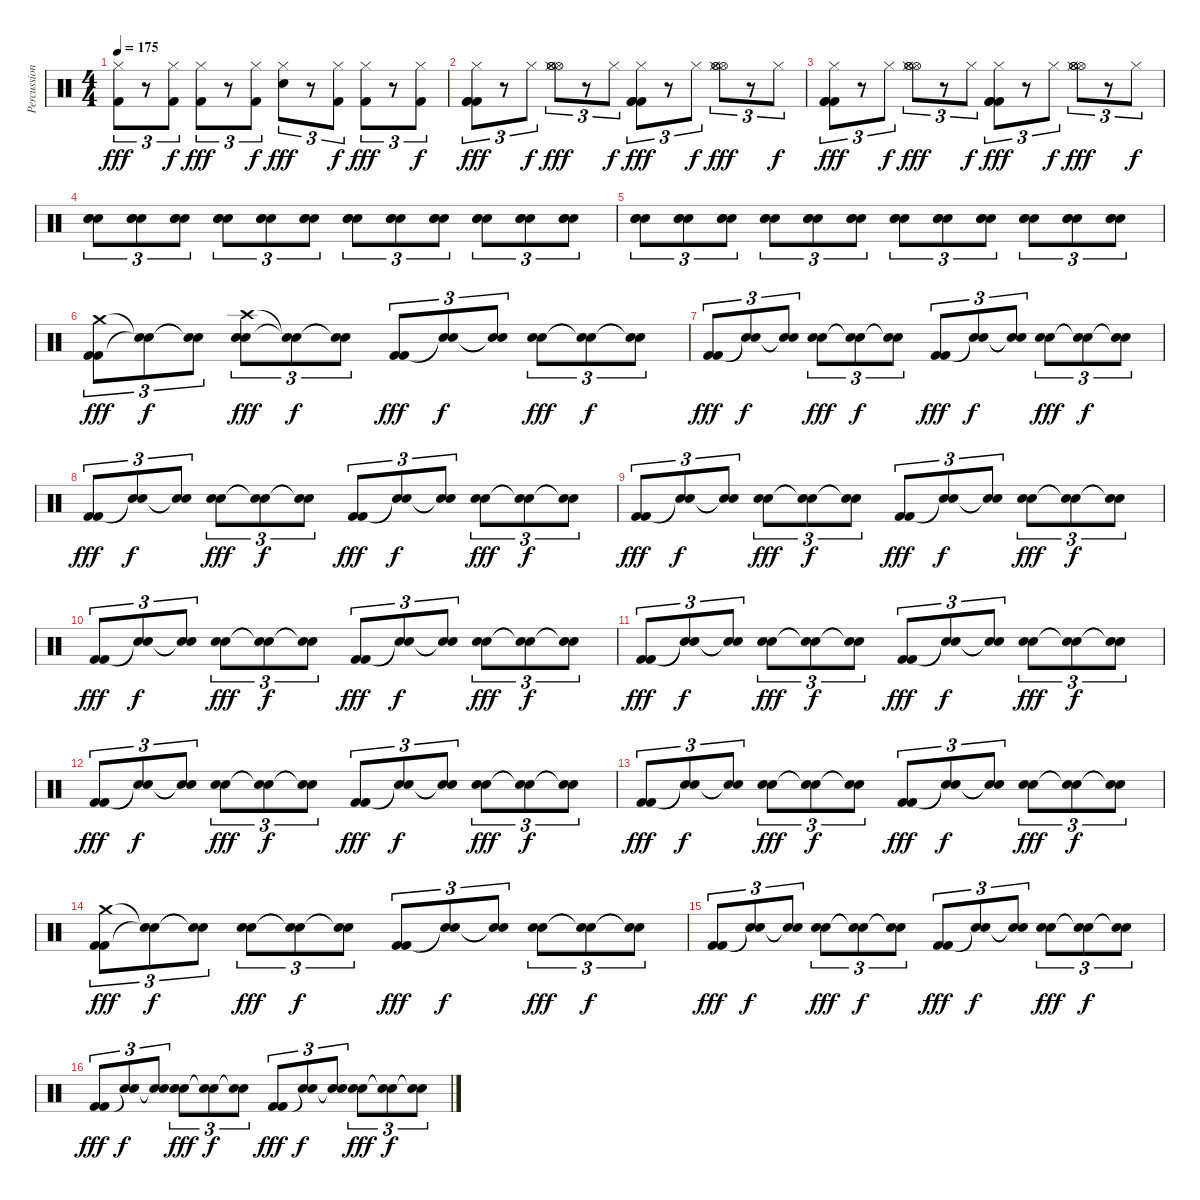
\track ("Percussion" "Percussion") {instrument percussion}
\staff {score}
\articulation defaults
\ts (4 4)
\tempo 175
\clef neutral
\ks c
("Kick (hit) 2" "Hi-Hat (closed)").8{tu (3 2) dy fff} r.8{tu (3 2)} ("Kick (hit) 2" "Hi-Hat (closed)").8{tu (3 2) dy f} ("Kick (hit) 2" "Hi-Hat (closed)").8{tu (3 2) dy fff} r.8{tu (3 2)} ("Kick (hit) 2" "Hi-Hat (closed)").8{tu (3 2) dy f} ("Electric Snare (hit)" "Hi-Hat (closed)").8{tu (3 2) dy fff} r.8{tu (3 2)} ("Kick (hit) 2" "Hi-Hat (closed)").8{tu (3 2) dy f} ("Kick (hit) 2" "Hi-Hat (closed)").8{tu (3 2) dy fff} r.8{tu (3 2)} ("Kick (hit) 2" "Hi-Hat (closed)").8{tu (3 2) dy f} |
("Kick (hit) 2" "Kick (hit) 2" "Kick (hit) 2" "Hi-Hat (closed)").8{tu (3 2) dy fff} r.8{tu (3 2)} "Hi-Hat (closed)".8{tu (3 2) dy f} ("Hi-Hat (open)" "Hi-Hat (open)" "Hi-Hat (open)" "Hi-Hat (closed)").8{tu (3 2) dy fff} r.8{tu (3 2)} "Hi-Hat (closed)".8{tu (3 2) dy f} ("Kick (hit) 2" "Kick (hit) 2" "Kick (hit) 2" "Hi-Hat (closed)").8{tu (3 2) dy fff} r.8{tu (3 2)} "Hi-Hat (closed)".8{tu (3 2) dy f} ("Hi-Hat (open)" "Hi-Hat (open)" "Hi-Hat (open)" "Hi-Hat (closed)").8{tu (3 2) dy fff} r.8{tu (3 2)} "Hi-Hat (closed)".8{tu (3 2) dy f} |
("Kick (hit) 2" "Kick (hit) 2" "Kick (hit) 2" "Hi-Hat (closed)").8{tu (3 2) dy fff} r.8{tu (3 2)} "Hi-Hat (closed)".8{tu (3 2) dy f} ("Hi-Hat (open)" "Hi-Hat (open)" "Hi-Hat (open)" "Hi-Hat (closed)").8{tu (3 2) dy fff} r.8{tu (3 2)} "Hi-Hat (closed)".8{tu (3 2) dy f} ("Kick (hit) 2" "Kick (hit) 2" "Kick (hit) 2" "Hi-Hat (closed)").8{tu (3 2) dy fff} r.8{tu (3 2)} "Hi-Hat (closed)".8{tu (3 2) dy f} ("Hi-Hat (open)" "Hi-Hat (open)" "Hi-Hat (open)" "Hi-Hat (closed)").8{tu (3 2) dy fff} r.8{tu (3 2)} "Hi-Hat (closed)".8{tu (3 2) dy f} |
("Electric Snare (hit)" "Electric Snare (hit)" "Electric Snare (hit)").8{tu (3 2)} ("Electric Snare (hit)" "Electric Snare (hit)" "Electric Snare (hit)").8{tu (3 2)} ("Electric Snare (hit)" "Electric Snare (hit)" "Electric Snare (hit)").8{tu (3 2)} ("Electric Snare (hit)" "Electric Snare (hit)" "Electric Snare (hit)").8{tu (3 2)} ("Electric Snare (hit)" "Electric Snare (hit)" "Electric Snare (hit)").8{tu (3 2)} ("Electric Snare (hit)" "Electric Snare (hit)" "Electric Snare (hit)").8{tu (3 2)} ("Electric Snare (hit)" "Electric Snare (hit)" "Electric Snare (hit)").8{tu (3 2)} ("Electric Snare (hit)" "Electric Snare (hit)" "Electric Snare (hit)").8{tu (3 2)} ("Electric Snare (hit)" "Electric Snare (hit)" "Electric Snare (hit)").8{tu (3 2)} ("Electric Snare (hit)" "Electric Snare (hit)" "Electric Snare (hit)").8{tu (3 2)} ("Electric Snare (hit)" "Electric Snare (hit)" "Electric Snare (hit)").8{tu (3 2)} ("Electric Snare (hit)" "Electric Snare (hit)" "Electric Snare (hit)").8{tu (3 2)} |
("Electric Snare (hit)" "Electric Snare (hit)" "Electric Snare (hit)").8{tu (3 2)} ("Electric Snare (hit)" "Electric Snare (hit)" "Electric Snare (hit)").8{tu (3 2)} ("Electric Snare (hit)" "Electric Snare (hit)" "Electric Snare (hit)").8{tu (3 2)} ("Electric Snare (hit)" "Electric Snare (hit)" "Electric Snare (hit)").8{tu (3 2)} ("Electric Snare (hit)" "Electric Snare (hit)" "Electric Snare (hit)").8{tu (3 2)} ("Electric Snare (hit)" "Electric Snare (hit)" "Electric Snare (hit)").8{tu (3 2)} ("Electric Snare (hit)" "Electric Snare (hit)" "Electric Snare (hit)").8{tu (3 2)} ("Electric Snare (hit)" "Electric Snare (hit)" "Electric Snare (hit)").8{tu (3 2)} ("Electric Snare (hit)" "Electric Snare (hit)" "Electric Snare (hit)").8{tu (3 2)} ("Electric Snare (hit)" "Electric Snare (hit)" "Electric Snare (hit)").8{tu (3 2)} ("Electric Snare (hit)" "Electric Snare (hit)" "Electric Snare (hit)").8{tu (3 2)} ("Electric Snare (hit)" "Electric Snare (hit)" "Electric Snare (hit)").8{tu (3 2)} |
("Kick (hit) 2" "Crash medium (hit)" "Kick (hit) 2").8{tu (3 2) dy fff} ("Snare (hit)"{t} "Snare (hit)"{t}).8{tu (3 2) dy f} ("Snare (hit)"{t} "Snare (hit)"{t}).8{tu (3 2)} ("Electric Snare (hit)" "Crash high (hit)" "Electric Snare (hit)").8{tu (3 2) dy fff} ("Snare (hit)"{t} "Snare (hit)"{t}).8{tu (3 2) dy f} ("Snare (hit)"{t} "Snare (hit)"{t}).8{tu (3 2)} ("Kick (hit) 2" "Kick (hit) 2").8{tu (3 2) dy fff} ("Snare (hit)"{t} "Snare (hit)"{t}).8{tu (3 2) dy f} ("Snare (hit)"{t} "Snare (hit)"{t}).8{tu (3 2)} ("Electric Snare (hit)" "Electric Snare (hit)").8{tu (3 2) dy fff} ("Snare (hit)"{t} "Snare (hit)"{t}).8{tu (3 2) dy f} ("Snare (hit)"{t} "Snare (hit)"{t}).8{tu (3 2)} |
("Kick (hit) 2" "Kick (hit) 2").8{tu (3 2) dy fff} ("Snare (hit)"{t} "Snare (hit)"{t}).8{tu (3 2) dy f} ("Snare (hit)"{t} "Snare (hit)"{t}).8{tu (3 2)} ("Electric Snare (hit)" "Electric Snare (hit)").8{tu (3 2) dy fff} ("Snare (hit)"{t} "Snare (hit)"{t}).8{tu (3 2) dy f} ("Snare (hit)"{t} "Snare (hit)"{t}).8{tu (3 2)} ("Kick (hit) 2" "Kick (hit) 2").8{tu (3 2) dy fff} ("Snare (hit)"{t} "Snare (hit)"{t}).8{tu (3 2) dy f} ("Snare (hit)"{t} "Snare (hit)"{t}).8{tu (3 2)} ("Electric Snare (hit)" "Electric Snare (hit)").8{tu (3 2) dy fff} ("Snare (hit)"{t} "Snare (hit)"{t}).8{tu (3 2) dy f} ("Snare (hit)"{t} "Snare (hit)"{t}).8{tu (3 2)} |
("Kick (hit) 2" "Kick (hit) 2").8{tu (3 2) dy fff} ("Snare (hit)"{t} "Snare (hit)"{t}).8{tu (3 2) dy f} ("Snare (hit)"{t} "Snare (hit)"{t}).8{tu (3 2)} ("Electric Snare (hit)" "Electric Snare (hit)").8{tu (3 2) dy fff} ("Snare (hit)"{t} "Snare (hit)"{t}).8{tu (3 2) dy f} ("Snare (hit)"{t} "Snare (hit)"{t}).8{tu (3 2)} ("Kick (hit) 2" "Kick (hit) 2").8{tu (3 2) dy fff} ("Snare (hit)"{t} "Snare (hit)"{t}).8{tu (3 2) dy f} ("Snare (hit)"{t} "Snare (hit)"{t}).8{tu (3 2)} ("Electric Snare (hit)" "Electric Snare (hit)").8{tu (3 2) dy fff} ("Snare (hit)"{t} "Snare (hit)"{t}).8{tu (3 2) dy f} ("Snare (hit)"{t} "Snare (hit)"{t}).8{tu (3 2)} |
("Kick (hit) 2" "Kick (hit) 2").8{tu (3 2) dy fff} ("Snare (hit)"{t} "Snare (hit)"{t}).8{tu (3 2) dy f} ("Snare (hit)"{t} "Snare (hit)"{t}).8{tu (3 2)} ("Electric Snare (hit)" "Electric Snare (hit)").8{tu (3 2) dy fff} ("Snare (hit)"{t} "Snare (hit)"{t}).8{tu (3 2) dy f} ("Snare (hit)"{t} "Snare (hit)"{t}).8{tu (3 2)} ("Kick (hit) 2" "Kick (hit) 2").8{tu (3 2) dy fff} ("Snare (hit)"{t} "Snare (hit)"{t}).8{tu (3 2) dy f} ("Snare (hit)"{t} "Snare (hit)"{t}).8{tu (3 2)} ("Electric Snare (hit)" "Electric Snare (hit)").8{tu (3 2) dy fff} ("Snare (hit)"{t} "Snare (hit)"{t}).8{tu (3 2) dy f} ("Snare (hit)"{t} "Snare (hit)"{t}).8{tu (3 2)} |
("Kick (hit) 2" "Kick (hit) 2").8{tu (3 2) dy fff} ("Snare (hit)"{t} "Snare (hit)"{t}).8{tu (3 2) dy f} ("Snare (hit)"{t} "Snare (hit)"{t}).8{tu (3 2)} ("Electric Snare (hit)" "Electric Snare (hit)").8{tu (3 2) dy fff} ("Snare (hit)"{t} "Snare (hit)"{t}).8{tu (3 2) dy f} ("Snare (hit)"{t} "Snare (hit)"{t}).8{tu (3 2)} ("Kick (hit) 2" "Kick (hit) 2").8{tu (3 2) dy fff} ("Snare (hit)"{t} "Snare (hit)"{t}).8{tu (3 2) dy f} ("Snare (hit)"{t} "Snare (hit)"{t}).8{tu (3 2)} ("Electric Snare (hit)" "Electric Snare (hit)").8{tu (3 2) dy fff} ("Snare (hit)"{t} "Snare (hit)"{t}).8{tu (3 2) dy f} ("Snare (hit)"{t} "Snare (hit)"{t}).8{tu (3 2)} |
("Kick (hit) 2" "Kick (hit) 2").8{tu (3 2) dy fff} ("Snare (hit)"{t} "Snare (hit)"{t}).8{tu (3 2) dy f} ("Snare (hit)"{t} "Snare (hit)"{t}).8{tu (3 2)} ("Electric Snare (hit)" "Electric Snare (hit)").8{tu (3 2) dy fff} ("Snare (hit)"{t} "Snare (hit)"{t}).8{tu (3 2) dy f} ("Snare (hit)"{t} "Snare (hit)"{t}).8{tu (3 2)} ("Kick (hit) 2" "Kick (hit) 2").8{tu (3 2) dy fff} ("Snare (hit)"{t} "Snare (hit)"{t}).8{tu (3 2) dy f} ("Snare (hit)"{t} "Snare (hit)"{t}).8{tu (3 2)} ("Electric Snare (hit)" "Electric Snare (hit)").8{tu (3 2) dy fff} ("Snare (hit)"{t} "Snare (hit)"{t}).8{tu (3 2) dy f} ("Snare (hit)"{t} "Snare (hit)"{t}).8{tu (3 2)} |
("Kick (hit) 2" "Kick (hit) 2").8{tu (3 2) dy fff} ("Snare (hit)"{t} "Snare (hit)"{t}).8{tu (3 2) dy f} ("Snare (hit)"{t} "Snare (hit)"{t}).8{tu (3 2)} ("Electric Snare (hit)" "Electric Snare (hit)").8{tu (3 2) dy fff} ("Snare (hit)"{t} "Snare (hit)"{t}).8{tu (3 2) dy f} ("Snare (hit)"{t} "Snare (hit)"{t}).8{tu (3 2)} ("Kick (hit) 2" "Kick (hit) 2").8{tu (3 2) dy fff} ("Snare (hit)"{t} "Snare (hit)"{t}).8{tu (3 2) dy f} ("Snare (hit)"{t} "Snare (hit)"{t}).8{tu (3 2)} ("Electric Snare (hit)" "Electric Snare (hit)").8{tu (3 2) dy fff} ("Snare (hit)"{t} "Snare (hit)"{t}).8{tu (3 2) dy f} ("Snare (hit)"{t} "Snare (hit)"{t}).8{tu (3 2)} |
("Kick (hit) 2" "Kick (hit) 2").8{tu (3 2) dy fff} ("Snare (hit)"{t} "Snare (hit)"{t}).8{tu (3 2) dy f} ("Snare (hit)"{t} "Snare (hit)"{t}).8{tu (3 2)} ("Electric Snare (hit)" "Electric Snare (hit)").8{tu (3 2) dy fff} ("Snare (hit)"{t} "Snare (hit)"{t}).8{tu (3 2) dy f} ("Snare (hit)"{t} "Snare (hit)"{t}).8{tu (3 2)} ("Kick (hit) 2" "Kick (hit) 2").8{tu (3 2) dy fff} ("Snare (hit)"{t} "Snare (hit)"{t}).8{tu (3 2) dy f} ("Snare (hit)"{t} "Snare (hit)"{t}).8{tu (3 2)} ("Electric Snare (hit)" "Electric Snare (hit)").8{tu (3 2) dy fff} ("Snare (hit)"{t} "Snare (hit)"{t}).8{tu (3 2) dy f} ("Snare (hit)"{t} "Snare (hit)"{t}).8{tu (3 2)} |
("Kick (hit) 2" "Crash medium (hit)" "Kick (hit) 2").8{tu (3 2) dy fff} ("Snare (hit)"{t} "Snare (hit)"{t}).8{tu (3 2) dy f} ("Snare (hit)"{t} "Snare (hit)"{t}).8{tu (3 2)} ("Electric Snare (hit)" "Electric Snare (hit)").8{tu (3 2) dy fff} ("Snare (hit)"{t} "Snare (hit)"{t}).8{tu (3 2) dy f} ("Snare (hit)"{t} "Snare (hit)"{t}).8{tu (3 2)} ("Kick (hit) 2" "Kick (hit) 2").8{tu (3 2) dy fff} ("Snare (hit)"{t} "Snare (hit)"{t}).8{tu (3 2) dy f} ("Snare (hit)"{t} "Snare (hit)"{t}).8{tu (3 2)} ("Electric Snare (hit)" "Electric Snare (hit)").8{tu (3 2) dy fff} ("Snare (hit)"{t} "Snare (hit)"{t}).8{tu (3 2) dy f} ("Snare (hit)"{t} "Snare (hit)"{t}).8{tu (3 2)} |
("Kick (hit) 2" "Kick (hit) 2").8{tu (3 2) dy fff} ("Snare (hit)"{t} "Snare (hit)"{t}).8{tu (3 2) dy f} ("Snare (hit)"{t} "Snare (hit)"{t}).8{tu (3 2)} ("Electric Snare (hit)" "Electric Snare (hit)").8{tu (3 2) dy fff} ("Snare (hit)"{t} "Snare (hit)"{t}).8{tu (3 2) dy f} ("Snare (hit)"{t} "Snare (hit)"{t}).8{tu (3 2)} ("Kick (hit) 2" "Kick (hit) 2").8{tu (3 2) dy fff} ("Snare (hit)"{t} "Snare (hit)"{t}).8{tu (3 2) dy f} ("Snare (hit)"{t} "Snare (hit)"{t}).8{tu (3 2)} ("Electric Snare (hit)" "Electric Snare (hit)").8{tu (3 2) dy fff} ("Snare (hit)"{t} "Snare (hit)"{t}).8{tu (3 2) dy f} ("Snare (hit)"{t} "Snare (hit)"{t}).8{tu (3 2)} |
("Kick (hit) 2" "Kick (hit) 2").8{tu (3 2) dy fff} ("Snare (hit)"{t} "Snare (hit)"{t}).8{tu (3 2) dy f} ("Snare (hit)"{t} "Snare (hit)"{t}).8{tu (3 2)} ("Electric Snare (hit)" "Electric Snare (hit)").8{tu (3 2) dy fff} ("Snare (hit)"{t} "Snare (hit)"{t}).8{tu (3 2) dy f} ("Snare (hit)"{t} "Snare (hit)"{t}).8{tu (3 2)} ("Kick (hit) 2" "Kick (hit) 2").8{tu (3 2) dy fff} ("Snare (hit)"{t} "Snare (hit)"{t}).8{tu (3 2) dy f} ("Snare (hit)"{t} "Snare (hit)"{t}).8{tu (3 2)} ("Electric Snare (hit)" "Electric Snare (hit)").8{tu (3 2) dy fff} ("Snare (hit)"{t} "Snare (hit)"{t}).8{tu (3 2) dy f} ("Snare (hit)"{t} "Snare (hit)"{t}).8{tu (3 2)}
